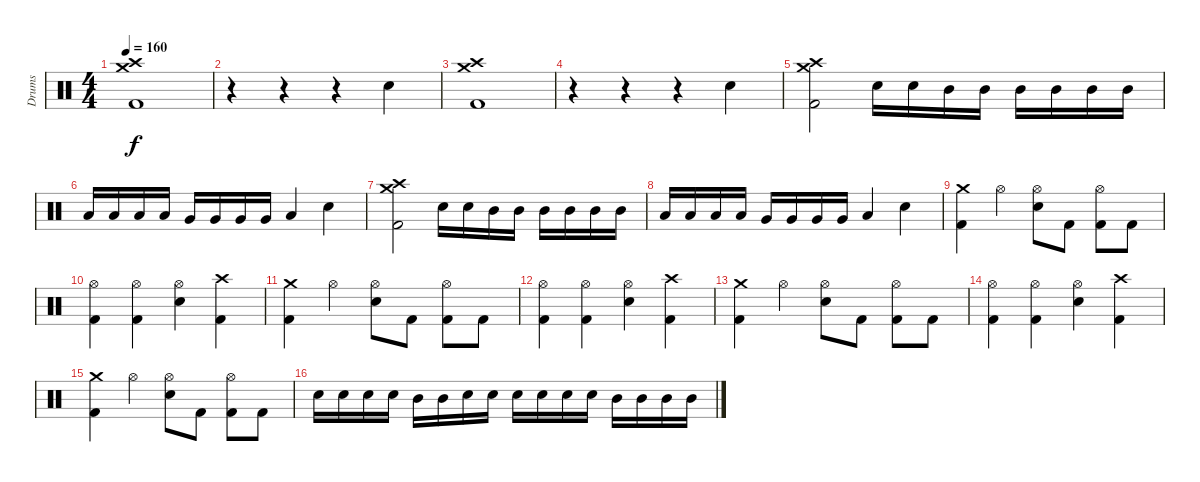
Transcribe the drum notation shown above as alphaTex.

\track ("Drums" "Drums") {instrument percussion}
\staff {score}
\articulation defaults
\ts (4 4)
\tempo 160
\clef neutral
\ks c
("Crash high (hit)" "Crash medium (hit)" "Kick (hit) 2").1{dy f} |
r.4 r.4 r.4 "Electric Snare (hit)".4 |
("Crash high (hit)" "Crash medium (hit)" "Kick (hit) 2").1 |
r.4 r.4 r.4 "Electric Snare (hit)".4 |
("Crash high (hit)" "Crash medium (hit)" "Kick (hit) 2").2 "Electric Snare (hit)".16 "Electric Snare (hit)".16 "Mid Tom (hit)".16 "Mid Tom (hit)".16 "Mid Tom (hit)".16 "Mid Tom (hit)".16 "Mid Tom (hit)".16 "Mid Tom (hit)".16 |
"Low Tom (hit)".16 "Low Tom (hit)".16 "Low Tom (hit)".16 "Low Tom (hit)".16 "Very Low Tom (hit)".16 "Very Low Tom (hit)".16 "Very Low Tom (hit)".16 "Very Low Tom (hit)".16 "Low Floor Tom (hit)".4 "Electric Snare (hit)".4 |
("Crash high (hit)" "Crash medium (hit)" "Kick (hit) 2").2 "Electric Snare (hit)".16 "Electric Snare (hit)".16 "Mid Tom (hit)".16 "Mid Tom (hit)".16 "Mid Tom (hit)".16 "Mid Tom (hit)".16 "Mid Tom (hit)".16 "Mid Tom (hit)".16 |
"Low Tom (hit)".16 "Low Tom (hit)".16 "Low Tom (hit)".16 "Low Tom (hit)".16 "Very Low Tom (hit)".16 "Very Low Tom (hit)".16 "Very Low Tom (hit)".16 "Very Low Tom (hit)".16 "Low Floor Tom (hit)".4 "Electric Snare (hit)".4 |
("Crash medium (hit)" "Kick (hit) 2").4 "Hi-Hat (open)".4 ("Hi-Hat (open)" "Electric Snare (hit)").8 "Kick (hit) 2".8 ("Hi-Hat (open)" "Kick (hit) 2").8 "Kick (hit) 2".8 |
("Hi-Hat (open)" "Kick (hit) 2").4 ("Hi-Hat (open)" "Kick (hit) 2").4 ("Hi-Hat (open)" "Electric Snare (hit)").4 ("Crash high (hit)" "Kick (hit) 2").4 |
("Crash medium (hit)" "Kick (hit) 2").4 "Hi-Hat (open)".4 ("Hi-Hat (open)" "Electric Snare (hit)").8 "Kick (hit) 2".8 ("Hi-Hat (open)" "Kick (hit) 2").8 "Kick (hit) 2".8 |
("Hi-Hat (open)" "Kick (hit) 2").4 ("Hi-Hat (open)" "Kick (hit) 2").4 ("Hi-Hat (open)" "Electric Snare (hit)").4 ("Crash high (hit)" "Kick (hit) 2").4 |
("Crash medium (hit)" "Kick (hit) 2").4 "Hi-Hat (open)".4 ("Hi-Hat (open)" "Electric Snare (hit)").8 "Kick (hit) 2".8 ("Hi-Hat (open)" "Kick (hit) 2").8 "Kick (hit) 2".8 |
("Hi-Hat (open)" "Kick (hit) 2").4 ("Hi-Hat (open)" "Kick (hit) 2").4 ("Hi-Hat (open)" "Electric Snare (hit)").4 ("Crash high (hit)" "Kick (hit) 2").4 |
("Crash medium (hit)" "Kick (hit) 2").4 "Hi-Hat (open)".4 ("Hi-Hat (open)" "Electric Snare (hit)").8 "Kick (hit) 2".8 ("Hi-Hat (open)" "Kick (hit) 2").8 "Kick (hit) 2".8 |
"Electric Snare (hit)".16 "Electric Snare (hit)".16 "Electric Snare (hit)".16 "Electric Snare (hit)".16 "Mid Tom (hit)".16 "Mid Tom (hit)".16 "Electric Snare (hit)".16 "Electric Snare (hit)".16 "Electric Snare (hit)".16 "Electric Snare (hit)".16 "Electric Snare (hit)".16 "Electric Snare (hit)".16 "Mid Tom (hit)".16 "Mid Tom (hit)".16 "Mid Tom (hit)".16 "Mid Tom (hit)".16
